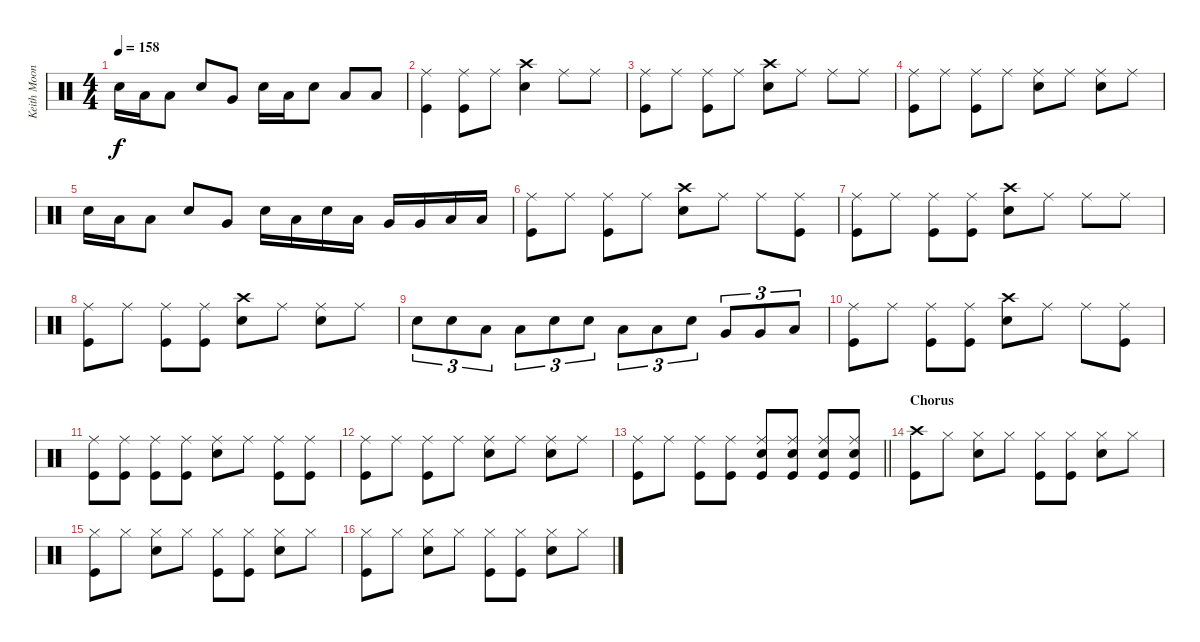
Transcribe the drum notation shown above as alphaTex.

\track ("Keith Moon" "Keith Moon") {instrument percussion}
\staff {score}
\articulation defaults
\ts (4 4)
\tempo 158
\clef neutral
\ks c "Snare (hit) 2".16{dy f} "Low Tom (hit)".16 "Low Tom (hit)".8 "Snare (hit) 2".8 "Very Low Tom (hit)".8 "Snare (hit) 2".16 "Low Tom (hit)".16 "Snare (hit) 2".8 "Low Floor Tom (hit)".8 "Low Floor Tom (hit)".8
|
("Ride (middle)" "Kick (hit)").4 ("Ride (middle)" "Kick (hit)").8 "Ride (middle)".8 ("Crash high (hit)" "Snare (hit) 2").4 "Ride (middle)".8 "Ride (middle)".8 |
("Ride (middle)" "Kick (hit)").8 "Ride (middle)".8 ("Ride (middle)" "Kick (hit)").8 "Ride (middle)".8 ("Crash high (hit)" "Snare (hit) 2").8 "Ride (middle)".8 "Ride (middle)".8 "Ride (middle)".8 |
("Ride (middle)" "Kick (hit)").8 "Ride (middle)".8 ("Ride (middle)" "Kick (hit)").8 "Ride (middle)".8 ("Ride (middle)" "Snare (hit) 2").8 "Ride (middle)".8 ("Ride (middle)" "Snare (hit) 2").8 "Ride (middle)".8 |
"Snare (hit) 2".16 "Low Tom (hit)".16 "Low Tom (hit)".8 "Snare (hit) 2".8 "Very Low Tom (hit)".8 "Snare (hit) 2".16 "Low Tom (hit)".16 "Snare (hit) 2".16 "Low Tom (hit)".16 "Very Low Tom (hit)".16 "Very Low Tom (hit)".16 "Low Floor Tom (hit)".16 "Low Floor Tom (hit)".16 |
("Ride (middle)" "Kick (hit)").8 "Ride (middle)".8 ("Ride (middle)" "Kick (hit)").8 "Ride (middle)".8 ("Crash high (hit)" "Snare (hit) 2").8 "Ride (middle)".8 "Ride (middle)".8 ("Ride (middle)" "Kick (hit)").8 |
("Ride (middle)" "Kick (hit)").8 "Ride (middle)".8 ("Ride (middle)" "Kick (hit)").8 ("Ride (middle)" "Kick (hit)").8 ("Crash high (hit)" "Snare (hit) 2").8 "Ride (middle)".8 "Ride (middle)".8 "Ride (middle)".8 |
("Ride (middle)" "Kick (hit)").8 "Ride (middle)".8 ("Ride (middle)" "Kick (hit)").8 ("Ride (middle)" "Kick (hit)").8 ("Crash high (hit)" "Snare (hit) 2").8 "Ride (middle)".8 ("Ride (middle)" "Snare (hit) 2").8 "Ride (middle)".8 |
"Snare (hit) 2".8{tu (3 2)} "Snare (hit) 2".8{tu (3 2)} "Low Tom (hit)".8{tu (3 2)} "Low Tom (hit)".8{tu (3 2)} "Snare (hit) 2".8{tu (3 2)} "Snare (hit) 2".8{tu (3 2)} "Low Tom (hit)".8{tu (3 2)} "Low Tom (hit)".8{tu (3 2)} "Snare (hit) 2".8{tu (3 2)} "Very Low Tom (hit)".8{tu (3 2)} "Very Low Tom (hit)".8{tu (3 2)} "Low Floor Tom (hit)".8{tu (3 2)} |
("Ride (middle)" "Kick (hit)").8 "Ride (middle)".8 ("Ride (middle)" "Kick (hit)").8 ("Ride (middle)" "Kick (hit)").8 ("Crash high (hit)" "Snare (hit) 2").8 "Ride (middle)".8 "Ride (middle)".8 ("Ride (middle)" "Kick (hit)").8 |
("Ride (middle)" "Kick (hit)").8 ("Ride (middle)" "Kick (hit)").8 ("Ride (middle)" "Kick (hit)").8 ("Ride (middle)" "Kick (hit)").8 ("Ride (middle)" "Snare (hit) 2").8 "Ride (middle)".8 ("Ride (middle)" "Kick (hit)").8 ("Ride (middle)" "Kick (hit)").8 |
("Ride (middle)" "Kick (hit)").8 "Ride (middle)".8 ("Ride (middle)" "Kick (hit)").8 "Ride (middle)".8 ("Ride (middle)" "Snare (hit) 2").8 "Ride (middle)".8 ("Ride (middle)" "Snare (hit) 2").8 "Ride (middle)".8 |
\barLineRight lightlight
("Ride (middle)" "Kick (hit)").8 "Ride (middle)".8 ("Ride (middle)" "Kick (hit)").8 ("Ride (middle)" "Kick (hit)").8 ("Ride (middle)" "Snare (hit) 2" "Kick (hit)").8 ("Ride (middle)" "Snare (hit) 2" "Kick (hit)").8 ("Ride (middle)" "Snare (hit) 2" "Kick (hit)").8 ("Ride (middle)" "Snare (hit) 2" "Kick (hit)").8 |
\section ("" "Chorus")
("Crash high (hit)" "Kick (hit)").8 "Hi-Hat (closed)".8 ("Hi-Hat (closed)" "Snare (hit) 2").8 "Hi-Hat (closed)".8 ("Hi-Hat (closed)" "Kick (hit)").8 ("Hi-Hat (closed)" "Kick (hit)").8 ("Hi-Hat (closed)" "Snare (hit) 2").8 "Hi-Hat (closed)".8 |
("Hi-Hat (closed)" "Kick (hit)").8 "Hi-Hat (closed)".8 ("Hi-Hat (closed)" "Snare (hit) 2").8 "Hi-Hat (closed)".8 ("Hi-Hat (closed)" "Kick (hit)").8 ("Hi-Hat (closed)" "Kick (hit)").8 ("Hi-Hat (closed)" "Snare (hit) 2").8 "Hi-Hat (closed)".8 |
("Hi-Hat (closed)" "Kick (hit)").8 "Hi-Hat (closed)".8 ("Hi-Hat (closed)" "Snare (hit) 2").8 "Hi-Hat (closed)".8 ("Hi-Hat (closed)" "Kick (hit)").8 ("Hi-Hat (closed)" "Kick (hit)").8 ("Hi-Hat (closed)" "Snare (hit) 2").8 "Hi-Hat (closed)".8
